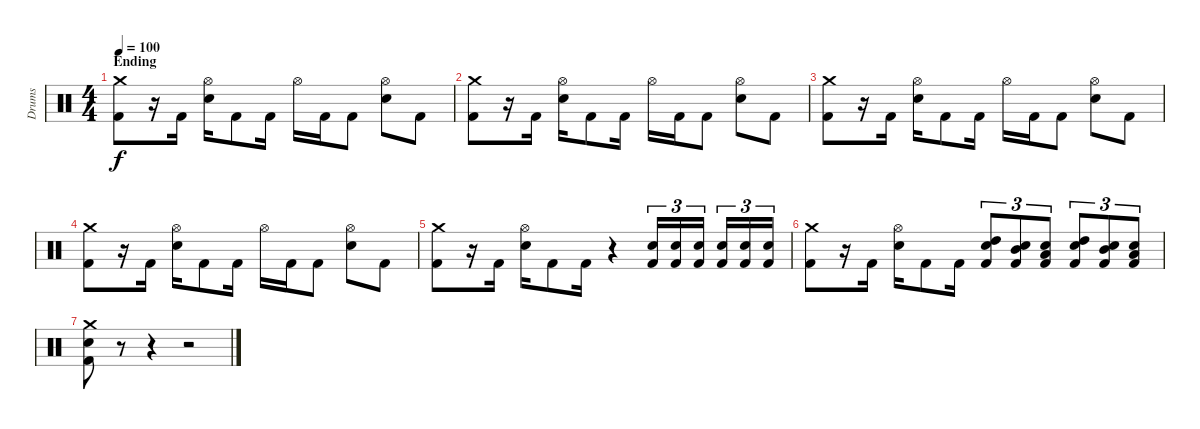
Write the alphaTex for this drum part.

\track ("Drums" "Drums") {instrument percussion}
\staff {score}
\articulation defaults
\ts (4 4)
\section ("" "Ending")
\tempo 100
\clef neutral
\ks c
("Crash medium (hit)" "Kick (hit) 2").8{dy f} r.16 "Kick (hit) 2".16 ("Hi-Hat (open)" "Snare (hit) 2").16 "Kick (hit) 2".8 "Kick (hit) 2".16 "Hi-Hat (open)".16 "Kick (hit) 2".16 "Kick (hit) 2".8 ("Hi-Hat (open)" "Snare (hit) 2").8 "Kick (hit) 2".8 |
("Crash medium (hit)" "Kick (hit) 2").8 r.16 "Kick (hit) 2".16 ("Hi-Hat (open)" "Snare (hit) 2").16 "Kick (hit) 2".8 "Kick (hit) 2".16 "Hi-Hat (open)".16 "Kick (hit) 2".16 "Kick (hit) 2".8 ("Hi-Hat (open)" "Snare (hit) 2").8 "Kick (hit) 2".8 |
("Crash medium (hit)" "Kick (hit) 2").8 r.16 "Kick (hit) 2".16 ("Hi-Hat (open)" "Snare (hit) 2").16 "Kick (hit) 2".8 "Kick (hit) 2".16 "Hi-Hat (open)".16 "Kick (hit) 2".16 "Kick (hit) 2".8 ("Hi-Hat (open)" "Snare (hit) 2").8 "Kick (hit) 2".8 |
("Crash medium (hit)" "Kick (hit) 2").8 r.16 "Kick (hit) 2".16 ("Hi-Hat (open)" "Snare (hit) 2").16 "Kick (hit) 2".8 "Kick (hit) 2".16 "Hi-Hat (open)".16 "Kick (hit) 2".16 "Kick (hit) 2".8 ("Hi-Hat (open)" "Snare (hit) 2").8 "Kick (hit) 2".8 |
("Crash medium (hit)" "Kick (hit) 2").8 r.16 "Kick (hit) 2".16 ("Hi-Hat (open)" "Snare (hit) 2").16 "Kick (hit) 2".8 "Kick (hit) 2".16 r.4 ("Snare (hit) 2" "Kick (hit) 2").16{tu (3 2)} ("Snare (hit) 2" "Kick (hit) 2").16{tu (3 2)} ("Snare (hit) 2" "Kick (hit) 2").16{tu (3 2)} ("Snare (hit) 2" "Kick (hit) 2").16{tu (3 2)} ("Snare (hit) 2" "Kick (hit) 2").16{tu (3 2)} ("Snare (hit) 2" "Kick (hit) 2").16{tu (3 2)} |
("Crash medium (hit)" "Kick (hit) 2").8 r.16 "Kick (hit) 2".16 ("Hi-Hat (open)" "Snare (hit) 2").16 "Kick (hit) 2".8 "Kick (hit) 2".16 ("High Tom (hit)" "Snare (hit) 2" "Kick (hit) 2").8{tu (3 2)} ("Mid Tom (hit)" "Snare (hit) 2" "Kick (hit) 2").8{tu (3 2)} ("Snare (hit) 2" "Low Tom (hit)" "Kick (hit) 2").8{tu (3 2)} ("High Tom (hit)" "Snare (hit) 2" "Kick (hit) 2").8{tu (3 2)} ("Mid Tom (hit)" "Snare (hit) 2" "Kick (hit) 2").8{tu (3 2)} ("Snare (hit) 2" "Low Tom (hit)" "Kick (hit) 2").8{tu (3 2)} |
("Crash medium (hit)" "Snare (hit) 2" "Kick (hit) 2").8 r.8 r.4 r.2
